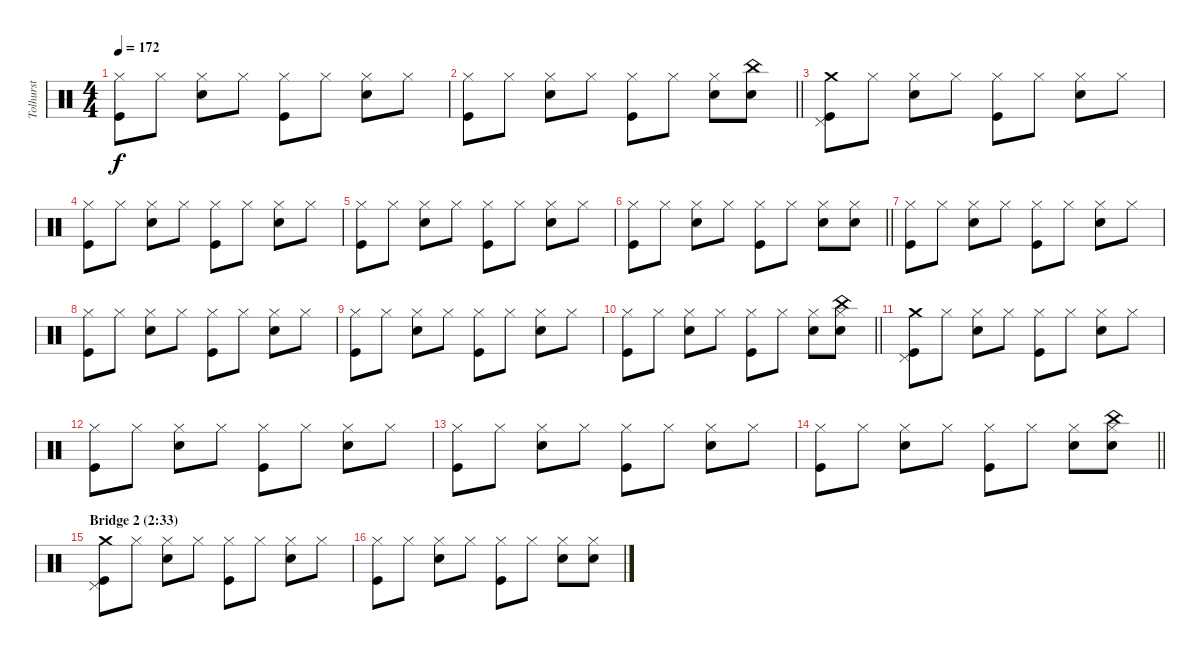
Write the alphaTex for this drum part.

\track ("Tolhurst" "Tolhurst") {instrument percussion}
\staff {score}
\articulation defaults
\ts (4 4)
\tempo 172
\clef neutral
\ks c
("Hi-Hat (closed)" "Kick (hit)").8{dy f} "Hi-Hat (closed)".8 ("Hi-Hat (closed)" "Snare (hit) 2").8 "Hi-Hat (closed)".8 ("Hi-Hat (closed)" "Kick (hit)").8 "Hi-Hat (closed)".8 ("Hi-Hat (closed)" "Snare (hit) 2").8 "Hi-Hat (closed)".8 |
\barLineRight lightlight
("Hi-Hat (closed)" "Kick (hit)").8 "Hi-Hat (closed)".8 ("Hi-Hat (closed)" "Snare (hit) 2").8 "Hi-Hat (closed)".8 ("Hi-Hat (closed)" "Kick (hit)").8 "Hi-Hat (closed)".8 ("Hi-Hat (closed)" "Snare (hit) 2").8 ("China (hit)" "Snare (hit) 2").8 |
("Crash medium (hit)" "Pedal Hi-Hat (hit)" "Kick (hit)").8 "Hi-Hat (closed)".8 ("Hi-Hat (closed)" "Snare (hit) 2").8 "Hi-Hat (closed)".8 ("Hi-Hat (closed)" "Kick (hit)").8 "Hi-Hat (closed)".8 ("Hi-Hat (closed)" "Snare (hit) 2").8 "Hi-Hat (closed)".8 |
("Hi-Hat (closed)" "Kick (hit)").8 "Hi-Hat (closed)".8 ("Hi-Hat (closed)" "Snare (hit) 2").8 "Hi-Hat (closed)".8 ("Hi-Hat (closed)" "Kick (hit)").8 "Hi-Hat (closed)".8 ("Hi-Hat (closed)" "Snare (hit) 2").8 "Hi-Hat (closed)".8 |
("Hi-Hat (closed)" "Kick (hit)").8 "Hi-Hat (closed)".8 ("Hi-Hat (closed)" "Snare (hit) 2").8 "Hi-Hat (closed)".8 ("Hi-Hat (closed)" "Kick (hit)").8 "Hi-Hat (closed)".8 ("Hi-Hat (closed)" "Snare (hit) 2").8 "Hi-Hat (closed)".8 |
\barLineRight lightlight
("Hi-Hat (closed)" "Kick (hit)").8 "Hi-Hat (closed)".8 ("Hi-Hat (closed)" "Snare (hit) 2").8 "Hi-Hat (closed)".8 ("Hi-Hat (closed)" "Kick (hit)").8 "Hi-Hat (closed)".8 ("Hi-Hat (closed)" "Snare (hit) 2").8 ("Hi-Hat (closed)" "Snare (hit) 2").8 |
("Hi-Hat (closed)" "Kick (hit)").8 "Hi-Hat (closed)".8 ("Hi-Hat (closed)" "Snare (hit) 2").8 "Hi-Hat (closed)".8 ("Hi-Hat (closed)" "Kick (hit)").8 "Hi-Hat (closed)".8 ("Hi-Hat (closed)" "Snare (hit) 2").8 "Hi-Hat (closed)".8 |
("Hi-Hat (closed)" "Kick (hit)").8 "Hi-Hat (closed)".8 ("Hi-Hat (closed)" "Snare (hit) 2").8 "Hi-Hat (closed)".8 ("Hi-Hat (closed)" "Kick (hit)").8 "Hi-Hat (closed)".8 ("Hi-Hat (closed)" "Snare (hit) 2").8 "Hi-Hat (closed)".8 |
("Hi-Hat (closed)" "Kick (hit)").8 "Hi-Hat (closed)".8 ("Hi-Hat (closed)" "Snare (hit) 2").8 "Hi-Hat (closed)".8 ("Hi-Hat (closed)" "Kick (hit)").8 "Hi-Hat (closed)".8 ("Hi-Hat (closed)" "Snare (hit) 2").8 "Hi-Hat (closed)".8 |
\barLineRight lightlight
("Hi-Hat (closed)" "Kick (hit)").8 "Hi-Hat (closed)".8 ("Hi-Hat (closed)" "Snare (hit) 2").8 "Hi-Hat (closed)".8 ("Hi-Hat (closed)" "Kick (hit)").8 "Hi-Hat (closed)".8 ("Hi-Hat (closed)" "Snare (hit) 2").8 ("China (hit)" "Hi-Hat (closed)" "Snare (hit) 2").8 |
("Crash medium (hit)" "Pedal Hi-Hat (hit)" "Kick (hit)").8 "Hi-Hat (closed)".8 ("Hi-Hat (closed)" "Snare (hit) 2").8 "Hi-Hat (closed)".8 ("Hi-Hat (closed)" "Kick (hit)").8 "Hi-Hat (closed)".8 ("Hi-Hat (closed)" "Snare (hit) 2").8 "Hi-Hat (closed)".8 |
("Hi-Hat (closed)" "Kick (hit)").8 "Hi-Hat (closed)".8 ("Hi-Hat (closed)" "Snare (hit) 2").8 "Hi-Hat (closed)".8 ("Hi-Hat (closed)" "Kick (hit)").8 "Hi-Hat (closed)".8 ("Hi-Hat (closed)" "Snare (hit) 2").8 "Hi-Hat (closed)".8 |
("Hi-Hat (closed)" "Kick (hit)").8 "Hi-Hat (closed)".8 ("Hi-Hat (closed)" "Snare (hit) 2").8 "Hi-Hat (closed)".8 ("Hi-Hat (closed)" "Kick (hit)").8 "Hi-Hat (closed)".8 ("Hi-Hat (closed)" "Snare (hit) 2").8 "Hi-Hat (closed)".8 |
\barLineRight lightlight
("Hi-Hat (closed)" "Kick (hit)").8 "Hi-Hat (closed)".8 ("Hi-Hat (closed)" "Snare (hit) 2").8 "Hi-Hat (closed)".8 ("Hi-Hat (closed)" "Kick (hit)").8 "Hi-Hat (closed)".8 ("Hi-Hat (closed)" "Snare (hit) 2").8 ("China (hit)" "Hi-Hat (closed)" "Snare (hit) 2").8 |
\section ("" "Bridge 2 (2:33)")
("Crash medium (hit)" "Pedal Hi-Hat (hit)" "Kick (hit)").8 "Hi-Hat (closed)".8 ("Hi-Hat (closed)" "Snare (hit) 2").8 "Hi-Hat (closed)".8 ("Hi-Hat (closed)" "Kick (hit)").8 "Hi-Hat (closed)".8 ("Hi-Hat (closed)" "Snare (hit) 2").8 "Hi-Hat (closed)".8 |
("Hi-Hat (closed)" "Kick (hit)").8 "Hi-Hat (closed)".8 ("Hi-Hat (closed)" "Snare (hit) 2").8 "Hi-Hat (closed)".8 ("Hi-Hat (closed)" "Kick (hit)").8 "Hi-Hat (closed)".8 ("Hi-Hat (closed)" "Snare (hit) 2").8 ("Hi-Hat (closed)" "Snare (hit) 2").8
